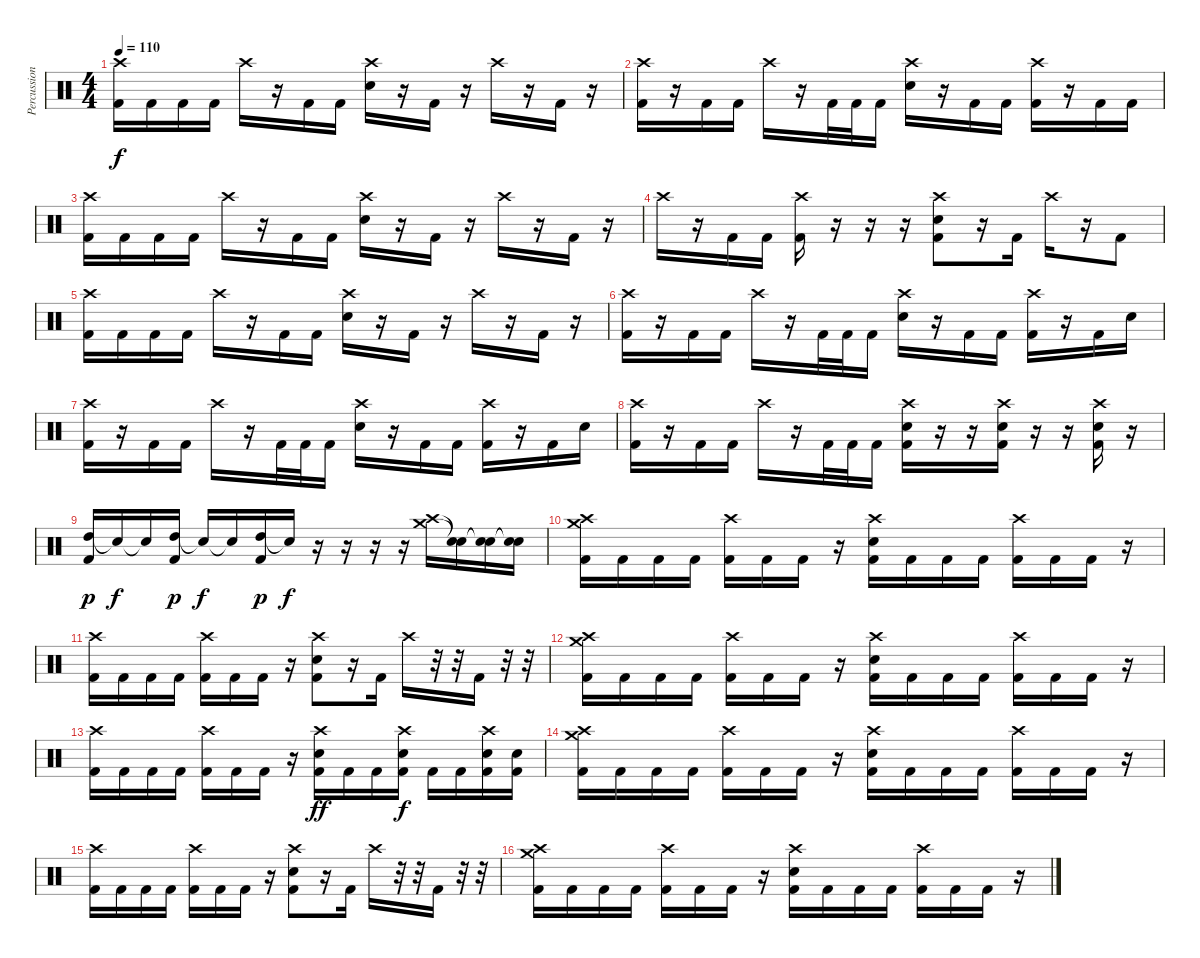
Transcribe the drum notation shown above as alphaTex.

\track ("Percussion" "Percussion") {instrument percussion}
\staff {score}
\articulation defaults
\ts (4 4)
\tempo 110
\clef neutral
\ks c
("Crash high (hit)" "Kick (hit) 2").16{dy f} "Kick (hit) 2".16 "Kick (hit) 2".16 "Kick (hit) 2".16 "Crash high (hit)".16 r.16 "Kick (hit) 2".16 "Kick (hit) 2".16 ("Crash high (hit)" "Snare (hit) 2").16 r.16 "Kick (hit) 2".16 r.16 "Crash high (hit)".16 r.16 "Kick (hit) 2".16 r.16 |
("Crash high (hit)" "Kick (hit) 2").16 r.16 "Kick (hit) 2".16 "Kick (hit) 2".16 "Crash high (hit)".16 r.16 "Kick (hit) 2".32 "Kick (hit) 2".32 "Kick (hit) 2".16 ("Crash high (hit)" "Snare (hit) 2").16 r.16 "Kick (hit) 2".16 "Kick (hit) 2".16 ("Crash high (hit)" "Kick (hit) 2").16 r.16 "Kick (hit) 2".16 "Kick (hit) 2".16 |
("Crash high (hit)" "Kick (hit) 2").16 "Kick (hit) 2".16 "Kick (hit) 2".16 "Kick (hit) 2".16 "Crash high (hit)".16 r.16 "Kick (hit) 2".16 "Kick (hit) 2".16 ("Crash high (hit)" "Snare (hit) 2").16 r.16 "Kick (hit) 2".16 r.16 "Crash high (hit)".16 r.16 "Kick (hit) 2".16 r.16 |
"Crash high (hit)".16 r.16 "Kick (hit) 2".16 "Kick (hit) 2".16 ("Crash high (hit)" "Kick (hit) 2").16 r.16 r.16 r.16 ("Crash high (hit)" "Snare (hit) 2" "Kick (hit) 2").8 r.16 "Kick (hit) 2".16 "Crash high (hit)".16 r.16 "Kick (hit) 2".8 |
("Crash high (hit)" "Kick (hit) 2").16 "Kick (hit) 2".16 "Kick (hit) 2".16 "Kick (hit) 2".16 "Crash high (hit)".16 r.16 "Kick (hit) 2".16 "Kick (hit) 2".16 ("Crash high (hit)" "Snare (hit) 2").16 r.16 "Kick (hit) 2".16 r.16 "Crash high (hit)".16 r.16 "Kick (hit) 2".16 r.16 |
("Crash high (hit)" "Kick (hit) 2").16 r.16 "Kick (hit) 2".16 "Kick (hit) 2".16 "Crash high (hit)".16 r.16 "Kick (hit) 2".32 "Kick (hit) 2".32 "Kick (hit) 2".16 ("Crash high (hit)" "Snare (hit) 2").16 r.16 "Kick (hit) 2".16 "Kick (hit) 2".16 ("Crash high (hit)" "Kick (hit) 2").16 r.16 "Kick (hit) 2".16 "Snare (hit) 2".16 |
("Crash high (hit)" "Kick (hit) 2").16 r.16 "Kick (hit) 2".16 "Kick (hit) 2".16 "Crash high (hit)".16 r.16 "Kick (hit) 2".32 "Kick (hit) 2".32 "Kick (hit) 2".16 ("Crash high (hit)" "Snare (hit) 2").16 r.16 "Kick (hit) 2".16 "Kick (hit) 2".16 ("Crash high (hit)" "Kick (hit) 2").16 r.16 "Kick (hit) 2".16 "Snare (hit) 2".16 |
("Crash high (hit)" "Kick (hit) 2").16 r.16 "Kick (hit) 2".16 "Kick (hit) 2".16 "Crash high (hit)".16 r.16 "Kick (hit) 2".32 "Kick (hit) 2".32 "Kick (hit) 2".16 ("Crash high (hit)" "Snare (hit) 2" "Kick (hit) 2").16 r.16 r.16 ("Crash high (hit)" "Snare (hit) 2" "Kick (hit) 2").16 r.16 r.16 ("Crash high (hit)" "Snare (hit) 2" "Kick (hit) 2").16 r.16 |
("High Tom (hit)" "Kick (hit) 2").16{dy p} "Snare (hit)"{t}.16{dy f} "Snare (hit)"{t}.16 ("High Tom (hit)" "Kick (hit) 2").16{dy p} "Snare (hit)"{t}.16{dy f} "Snare (hit)"{t}.16 ("High Tom (hit)" "Kick (hit) 2").16{dy p} "Snare (hit)"{t}.16{dy f} r.16 r.16 r.16 r.16 ("Crash medium (hit)" "Crash high (hit)").16 ("Snare (hit)"{t} "Snare (hit)"{t}).16 ("Snare (hit)"{t} "Snare (hit)"{t}).16 ("Snare (hit)"{t} "Snare (hit)"{t}).16 |
("Crash high (hit)" "Crash medium (hit)" "Kick (hit) 2").16 "Kick (hit) 2".16 "Kick (hit) 2".16 "Kick (hit) 2".16 ("Crash high (hit)" "Kick (hit) 2").16 "Kick (hit) 2".16 "Kick (hit) 2".16 r.16 ("Crash high (hit)" "Snare (hit) 2" "Kick (hit) 2").16 "Kick (hit) 2".16 "Kick (hit) 2".16 "Kick (hit) 2".16 ("Crash high (hit)" "Kick (hit) 2").16 "Kick (hit) 2".16 "Kick (hit) 2".16 r.16 |
("Crash high (hit)" "Kick (hit) 2").16 "Kick (hit) 2".16 "Kick (hit) 2".16 "Kick (hit) 2".16 ("Crash high (hit)" "Kick (hit) 2").16 "Kick (hit) 2".16 "Kick (hit) 2".16 r.16 ("Crash high (hit)" "Snare (hit) 2" "Kick (hit) 2").8 r.16 "Kick (hit) 2".16 "Crash high (hit)".16 r.32 r.32 "Kick (hit) 2".16 r.32 r.32 |
("Crash high (hit)" "Crash medium (hit)" "Kick (hit) 2").16 "Kick (hit) 2".16 "Kick (hit) 2".16 "Kick (hit) 2".16 ("Crash high (hit)" "Kick (hit) 2").16 "Kick (hit) 2".16 "Kick (hit) 2".16 r.16 ("Crash high (hit)" "Snare (hit) 2" "Kick (hit) 2").16 "Kick (hit) 2".16 "Kick (hit) 2".16 "Kick (hit) 2".16 ("Crash high (hit)" "Kick (hit) 2").16 "Kick (hit) 2".16 "Kick (hit) 2".16 r.16 |
("Crash high (hit)" "Kick (hit) 2").16 "Kick (hit) 2".16 "Kick (hit) 2".16 "Kick (hit) 2".16 ("Crash high (hit)" "Kick (hit) 2").16 "Kick (hit) 2".16 "Kick (hit) 2".16 r.16 ("Crash high (hit)" "Snare (hit) 2" "Kick (hit) 2").16{dy ff} "Kick (hit) 2".16 "Kick (hit) 2".16 ("Crash high (hit)" "Snare (hit) 2" "Kick (hit) 2").16{dy f} "Kick (hit) 2".16 "Kick (hit) 2".16 ("Crash high (hit)" "Snare (hit) 2" "Kick (hit) 2").16 ("Snare (hit) 2" "Kick (hit) 2").16 |
("Crash high (hit)" "Crash medium (hit)" "Kick (hit) 2").16 "Kick (hit) 2".16 "Kick (hit) 2".16 "Kick (hit) 2".16 ("Crash high (hit)" "Kick (hit) 2").16 "Kick (hit) 2".16 "Kick (hit) 2".16 r.16 ("Crash high (hit)" "Snare (hit) 2" "Kick (hit) 2").16 "Kick (hit) 2".16 "Kick (hit) 2".16 "Kick (hit) 2".16 ("Crash high (hit)" "Kick (hit) 2").16 "Kick (hit) 2".16 "Kick (hit) 2".16 r.16 |
("Crash high (hit)" "Kick (hit) 2").16 "Kick (hit) 2".16 "Kick (hit) 2".16 "Kick (hit) 2".16 ("Crash high (hit)" "Kick (hit) 2").16 "Kick (hit) 2".16 "Kick (hit) 2".16 r.16 ("Crash high (hit)" "Snare (hit) 2" "Kick (hit) 2").8 r.16 "Kick (hit) 2".16 "Crash high (hit)".16 r.32 r.32 "Kick (hit) 2".16 r.32 r.32 |
("Crash high (hit)" "Crash medium (hit)" "Kick (hit) 2").16 "Kick (hit) 2".16 "Kick (hit) 2".16 "Kick (hit) 2".16 ("Crash high (hit)" "Kick (hit) 2").16 "Kick (hit) 2".16 "Kick (hit) 2".16 r.16 ("Crash high (hit)" "Snare (hit) 2" "Kick (hit) 2").16 "Kick (hit) 2".16 "Kick (hit) 2".16 "Kick (hit) 2".16 ("Crash high (hit)" "Kick (hit) 2").16 "Kick (hit) 2".16 "Kick (hit) 2".16 r.16
